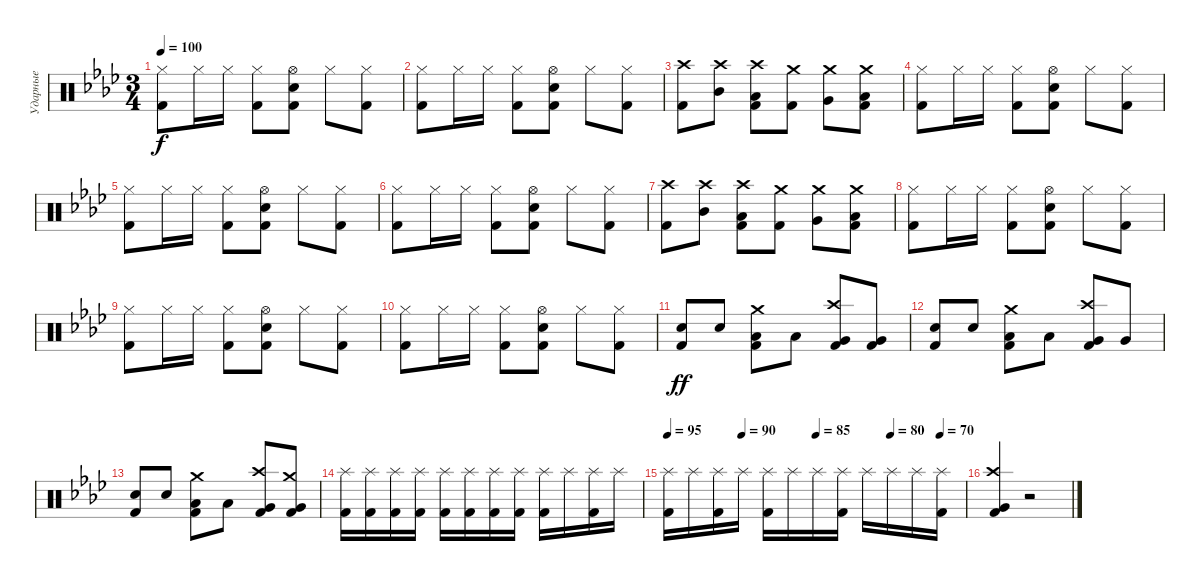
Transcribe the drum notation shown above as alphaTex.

\track ("Ударные" "Ударные") {instrument percussion}
\staff {score}
\articulation defaults
\ts (3 4)
\tempo 100
\clef neutral
\ks fminor
("Kick (hit) 2" "Hi-Hat (closed)").8{dy f} "Hi-Hat (closed)".16 "Hi-Hat (closed)".16 ("Kick (hit) 2" "Hi-Hat (closed)").8 ("Snare (hit) 2" "Kick (hit) 2" "Hi-Hat (open)").8 "Hi-Hat (closed)".8 ("Kick (hit) 2" "Hi-Hat (closed)").8 |
("Kick (hit) 2" "Hi-Hat (closed)").8 "Hi-Hat (closed)".16 "Hi-Hat (closed)".16 ("Kick (hit) 2" "Hi-Hat (closed)").8 ("Snare (hit) 2" "Kick (hit) 2" "Hi-Hat (open)").8 "Hi-Hat (closed)".8 ("Kick (hit) 2" "Hi-Hat (closed)").8 |
("Kick (hit) 2" "Crash high (hit)").8 ("Mid Tom (hit)" "Crash high (hit)").8 ("Low Tom (hit)" "Kick (hit) 2" "Crash high (hit)").8 ("Kick (hit) 2" "Crash medium (hit)").8 ("Very Low Tom (hit)" "Crash medium (hit)").8 ("Low Floor Tom (hit)" "Kick (hit) 2" "Crash medium (hit)").8 |
("Kick (hit) 2" "Hi-Hat (closed)").8 "Hi-Hat (closed)".16 "Hi-Hat (closed)".16 ("Kick (hit) 2" "Hi-Hat (closed)").8 ("Snare (hit) 2" "Kick (hit) 2" "Hi-Hat (open)").8 "Hi-Hat (closed)".8 ("Kick (hit) 2" "Hi-Hat (closed)").8 |
("Kick (hit) 2" "Hi-Hat (closed)").8 "Hi-Hat (closed)".16 "Hi-Hat (closed)".16 ("Kick (hit) 2" "Hi-Hat (closed)").8 ("Snare (hit) 2" "Kick (hit) 2" "Hi-Hat (open)").8 "Hi-Hat (closed)".8 ("Kick (hit) 2" "Hi-Hat (closed)").8 |
("Kick (hit) 2" "Hi-Hat (closed)").8 "Hi-Hat (closed)".16 "Hi-Hat (closed)".16 ("Kick (hit) 2" "Hi-Hat (closed)").8 ("Snare (hit) 2" "Kick (hit) 2" "Hi-Hat (open)").8 "Hi-Hat (closed)".8 ("Kick (hit) 2" "Hi-Hat (closed)").8 |
("Kick (hit) 2" "Crash high (hit)").8 ("Mid Tom (hit)" "Crash high (hit)").8 ("Low Tom (hit)" "Kick (hit) 2" "Crash high (hit)").8 ("Kick (hit) 2" "Crash medium (hit)").8 ("Very Low Tom (hit)" "Crash medium (hit)").8 ("Low Floor Tom (hit)" "Kick (hit) 2" "Crash medium (hit)").8 |
("Kick (hit) 2" "Hi-Hat (closed)").8 "Hi-Hat (closed)".16 "Hi-Hat (closed)".16 ("Kick (hit) 2" "Hi-Hat (closed)").8 ("Snare (hit) 2" "Kick (hit) 2" "Hi-Hat (open)").8 "Hi-Hat (closed)".8 ("Kick (hit) 2" "Hi-Hat (closed)").8 |
("Kick (hit) 2" "Hi-Hat (closed)").8 "Hi-Hat (closed)".16 "Hi-Hat (closed)".16 ("Kick (hit) 2" "Hi-Hat (closed)").8 ("Snare (hit) 2" "Kick (hit) 2" "Hi-Hat (open)").8 "Hi-Hat (closed)".8 ("Kick (hit) 2" "Hi-Hat (closed)").8 |
("Kick (hit) 2" "Hi-Hat (closed)").8 "Hi-Hat (closed)".16 "Hi-Hat (closed)".16 ("Kick (hit) 2" "Hi-Hat (closed)").8 ("Snare (hit) 2" "Kick (hit) 2" "Hi-Hat (open)").8 "Hi-Hat (closed)".8 ("Kick (hit) 2" "Hi-Hat (closed)").8 |
("Snare (hit) 2" "Kick (hit) 2").8{dy ff} "Snare (hit) 2".8 ("Low Tom (hit)" "Kick (hit) 2" "Crash medium (hit)").8 "Low Tom (hit)".8 ("Very Low Tom (hit)" "Kick (hit) 2" "Crash high (hit)").8 ("Very Low Tom (hit)" "Kick (hit) 2").8 |
("Snare (hit) 2" "Kick (hit) 2").8 "Snare (hit) 2".8 ("Low Tom (hit)" "Kick (hit) 2" "Crash medium (hit)").8 "Low Tom (hit)".8 ("Very Low Tom (hit)" "Kick (hit) 2" "Crash high (hit)").8 "Very Low Tom (hit)".8 |
("Snare (hit) 2" "Kick (hit) 2").8 "Snare (hit) 2".8 ("Low Tom (hit)" "Kick (hit) 2" "Crash medium (hit)").8 "Low Tom (hit)".8 ("Very Low Tom (hit)" "Kick (hit) 2" "Crash high (hit)").8 ("Very Low Tom (hit)" "Kick (hit) 2" "Crash medium (hit)").8 |
("Kick (hit) 2" "Splash (hit)").16 ("Kick (hit) 2" "Splash (hit)").16 ("Kick (hit) 2" "Splash (hit)").16 ("Kick (hit) 2" "Splash (hit)").16 ("Kick (hit) 2" "Splash (hit)").16 ("Kick (hit) 2" "Splash (hit)").16 ("Kick (hit) 2" "Splash (hit)").16 ("Kick (hit) 2" "Splash (hit)").16 ("Kick (hit) 2" "Splash (hit)").16 "Splash (hit)".16 ("Kick (hit) 2" "Splash (hit)").16 "Splash (hit)".16 |
\tempo 95
\tempo (90 0.25)
\tempo (85 0.5)
\tempo (80 0.75)
\tempo (70 0.9166666666666666)
("Kick (hit) 2" "Splash (hit)").16 "Splash (hit)".16 ("Kick (hit) 2" "Splash (hit)").16 "Splash (hit)".16 ("Kick (hit) 2" "Splash (hit)").16 "Splash (hit)".16 "Splash (hit)".16 ("Kick (hit) 2" "Splash (hit)").16 "Splash (hit)".16 "Splash (hit)".16 "Splash (hit)".16 ("Kick (hit) 2" "Splash (hit)").16 |
("Very Low Tom (hit)" "Kick (hit) 2" "Crash high (hit)").4 r.2
